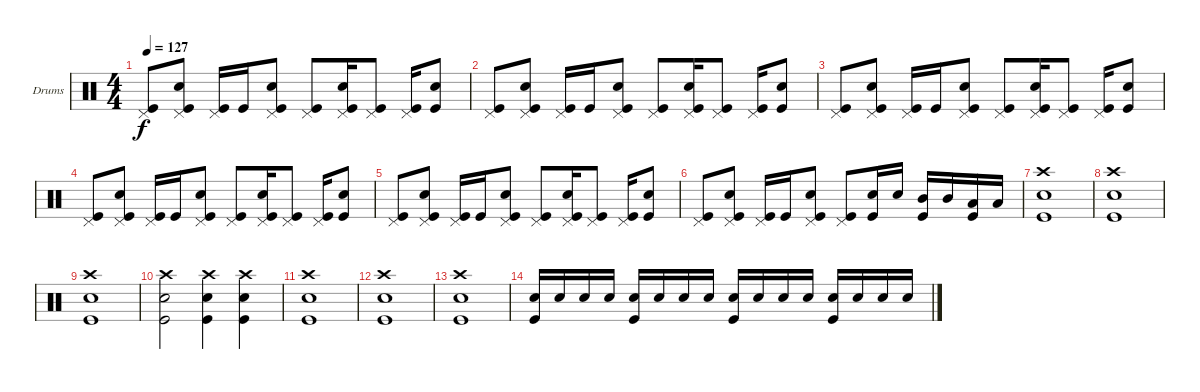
\bracketExtendMode groupsimilarinstruments
\firstSystemTrackNameOrientation horizontal
\otherSystemsTrackNameOrientation horizontal
\track ("Drumkit" "Drums") {instrument percussion}
\staff {score}
\articulation defaults
\ts (4 4)
\tempo 127
\clef neutral
\ks c
("Pedal Hi-Hat (hit)" "Kick (hit)").8{dy f} ("Pedal Hi-Hat (hit)" "Snare (hit) 2" "Kick (hit)").8 ("Pedal Hi-Hat (hit)" "Kick (hit)").16 "Kick (hit)".16 ("Pedal Hi-Hat (hit)" "Snare (hit) 2" "Kick (hit)").8 ("Pedal Hi-Hat (hit)" "Kick (hit)").8 ("Pedal Hi-Hat (hit)" "Snare (hit) 2" "Kick (hit)").16 ("Pedal Hi-Hat (hit)" "Kick (hit)").8 ("Pedal Hi-Hat (hit)" "Kick (hit)").16 ("Snare (hit) 2" "Kick (hit)").8 |
("Pedal Hi-Hat (hit)" "Kick (hit)").8 ("Pedal Hi-Hat (hit)" "Snare (hit) 2" "Kick (hit)").8 ("Pedal Hi-Hat (hit)" "Kick (hit)").16 "Kick (hit)".16 ("Pedal Hi-Hat (hit)" "Snare (hit) 2" "Kick (hit)").8 ("Pedal Hi-Hat (hit)" "Kick (hit)").8 ("Pedal Hi-Hat (hit)" "Snare (hit) 2" "Kick (hit)").16 ("Pedal Hi-Hat (hit)" "Kick (hit)").8 ("Pedal Hi-Hat (hit)" "Kick (hit)").16 ("Snare (hit) 2" "Kick (hit)").8 |
("Pedal Hi-Hat (hit)" "Kick (hit)").8 ("Pedal Hi-Hat (hit)" "Snare (hit) 2" "Kick (hit)").8 ("Pedal Hi-Hat (hit)" "Kick (hit)").16 "Kick (hit)".16 ("Pedal Hi-Hat (hit)" "Snare (hit) 2" "Kick (hit)").8 ("Pedal Hi-Hat (hit)" "Kick (hit)").8 ("Pedal Hi-Hat (hit)" "Snare (hit) 2" "Kick (hit)").16 ("Pedal Hi-Hat (hit)" "Kick (hit)").8 ("Pedal Hi-Hat (hit)" "Kick (hit)").16 ("Snare (hit) 2" "Kick (hit)").8 |
("Pedal Hi-Hat (hit)" "Kick (hit)").8 ("Pedal Hi-Hat (hit)" "Snare (hit) 2" "Kick (hit)").8 ("Pedal Hi-Hat (hit)" "Kick (hit)").16 "Kick (hit)".16 ("Pedal Hi-Hat (hit)" "Snare (hit) 2" "Kick (hit)").8 ("Pedal Hi-Hat (hit)" "Kick (hit)").8 ("Pedal Hi-Hat (hit)" "Snare (hit) 2" "Kick (hit)").16 ("Pedal Hi-Hat (hit)" "Kick (hit)").8 ("Pedal Hi-Hat (hit)" "Kick (hit)").16 ("Snare (hit) 2" "Kick (hit)").8 |
("Pedal Hi-Hat (hit)" "Kick (hit)").8 ("Pedal Hi-Hat (hit)" "Snare (hit) 2" "Kick (hit)").8 ("Pedal Hi-Hat (hit)" "Kick (hit)").16 "Kick (hit)".16 ("Pedal Hi-Hat (hit)" "Snare (hit) 2" "Kick (hit)").8 ("Pedal Hi-Hat (hit)" "Kick (hit)").8 ("Pedal Hi-Hat (hit)" "Snare (hit) 2" "Kick (hit)").16 ("Pedal Hi-Hat (hit)" "Kick (hit)").8 ("Pedal Hi-Hat (hit)" "Kick (hit)").16 ("Snare (hit) 2" "Kick (hit)").8 |
("Pedal Hi-Hat (hit)" "Kick (hit)").8 ("Pedal Hi-Hat (hit)" "Snare (hit) 2" "Kick (hit)").8 ("Pedal Hi-Hat (hit)" "Kick (hit)").16 "Kick (hit)".16 ("Pedal Hi-Hat (hit)" "Snare (hit) 2" "Kick (hit)").8 ("Pedal Hi-Hat (hit)" "Kick (hit)").8 ("Snare (hit) 2" "Kick (hit)").16 "Snare (hit) 2".16 ("Kick (hit)" "Mid Tom (hit)").16 "Mid Tom (hit)".16 ("Kick (hit)" "Low Tom (hit)").16 "Low Tom (hit)".16 |
("Crash high (hit)" "Snare (hit) 2" "Kick (hit)").1 |
("Crash high (hit)" "Snare (hit) 2" "Kick (hit)").1 |
("Crash high (hit)" "Snare (hit) 2" "Kick (hit)").1 |
("Crash high (hit)" "Snare (hit) 2" "Kick (hit)").2 ("Crash high (hit)" "Snare (hit) 2" "Kick (hit)").4 ("Crash high (hit)" "Snare (hit) 2" "Kick (hit)").4 |
("Crash high (hit)" "Snare (hit) 2" "Kick (hit)").1 |
("Crash high (hit)" "Snare (hit) 2" "Kick (hit)").1 |
("Crash high (hit)" "Snare (hit) 2" "Kick (hit)").1 |
("Snare (hit) 2" "Kick (hit)").16 "Snare (hit) 2".16 "Snare (hit) 2".16 "Snare (hit) 2".16 ("Snare (hit) 2" "Kick (hit)").16 "Snare (hit) 2".16 "Snare (hit) 2".16 "Snare (hit) 2".16 ("Snare (hit) 2" "Kick (hit)").16 "Snare (hit) 2".16 "Snare (hit) 2".16 "Snare (hit) 2".16 ("Snare (hit) 2" "Kick (hit)").16 "Snare (hit) 2".16 "Snare (hit) 2".16 "Snare (hit) 2".16
